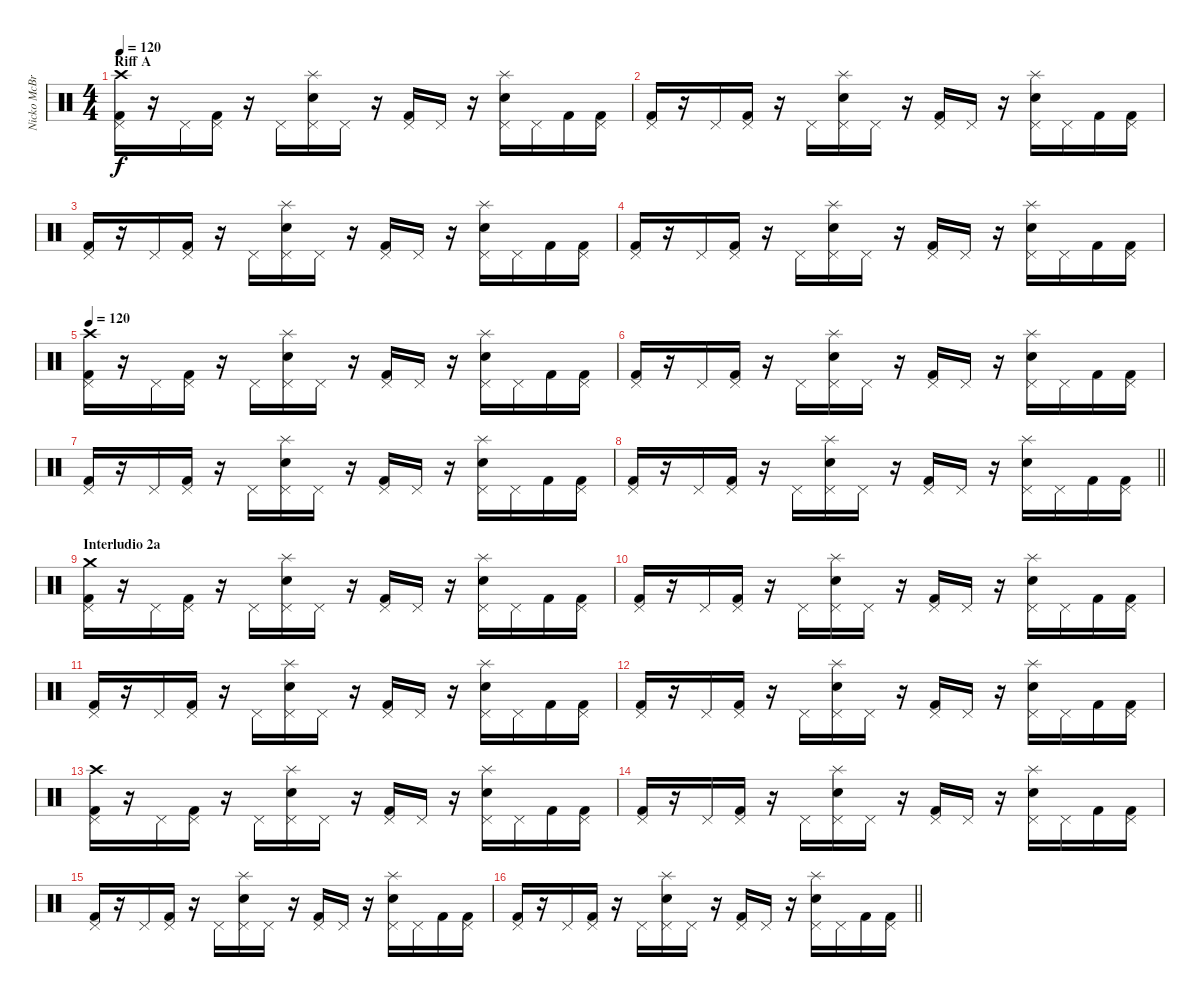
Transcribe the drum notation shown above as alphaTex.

\track ("Nicko McBrain" "Nicko McBr") {instrument percussion}
\staff {score}
\articulation defaults
\ts (4 4)
\section ("" "Riff A")
\tempo 120
\clef neutral
\ks c
("Kick (hit) 2" "Pedal Hi-Hat (hit)" "Crash high (hit)").16{dy f} r.16 "Pedal Hi-Hat (hit)".16 ("Kick (hit) 2" "Pedal Hi-Hat (hit)").16 r.16 "Pedal Hi-Hat (hit)".16 ("Snare (hit) 2" "Pedal Hi-Hat (hit)" "Splash (hit)").16 "Pedal Hi-Hat (hit)".16 r.16 ("Kick (hit) 2" "Pedal Hi-Hat (hit)").16 "Pedal Hi-Hat (hit)".16 r.16 ("Snare (hit) 2" "Pedal Hi-Hat (hit)" "Splash (hit)").16 "Pedal Hi-Hat (hit)".16 "Kick (hit) 2".16 ("Kick (hit) 2" "Pedal Hi-Hat (hit)").16 |
("Kick (hit) 2" "Pedal Hi-Hat (hit)").16 r.16 "Pedal Hi-Hat (hit)".16 ("Kick (hit) 2" "Pedal Hi-Hat (hit)").16 r.16 "Pedal Hi-Hat (hit)".16 ("Snare (hit) 2" "Pedal Hi-Hat (hit)" "Splash (hit)").16 "Pedal Hi-Hat (hit)".16 r.16 ("Kick (hit) 2" "Pedal Hi-Hat (hit)").16 "Pedal Hi-Hat (hit)".16 r.16 ("Snare (hit) 2" "Pedal Hi-Hat (hit)" "Splash (hit)").16 "Pedal Hi-Hat (hit)".16 "Kick (hit) 2".16 ("Kick (hit) 2" "Pedal Hi-Hat (hit)").16 |
("Kick (hit) 2" "Pedal Hi-Hat (hit)").16 r.16 "Pedal Hi-Hat (hit)".16 ("Kick (hit) 2" "Pedal Hi-Hat (hit)").16 r.16 "Pedal Hi-Hat (hit)".16 ("Snare (hit) 2" "Pedal Hi-Hat (hit)" "Splash (hit)").16 "Pedal Hi-Hat (hit)".16 r.16 ("Kick (hit) 2" "Pedal Hi-Hat (hit)").16 "Pedal Hi-Hat (hit)".16 r.16 ("Snare (hit) 2" "Pedal Hi-Hat (hit)" "Splash (hit)").16 "Pedal Hi-Hat (hit)".16 "Kick (hit) 2".16 ("Kick (hit) 2" "Pedal Hi-Hat (hit)").16 |
("Kick (hit) 2" "Pedal Hi-Hat (hit)").16 r.16 "Pedal Hi-Hat (hit)".16 ("Kick (hit) 2" "Pedal Hi-Hat (hit)").16 r.16 "Pedal Hi-Hat (hit)".16 ("Snare (hit) 2" "Pedal Hi-Hat (hit)" "Splash (hit)").16 "Pedal Hi-Hat (hit)".16 r.16 ("Kick (hit) 2" "Pedal Hi-Hat (hit)").16 "Pedal Hi-Hat (hit)".16 r.16 ("Snare (hit) 2" "Pedal Hi-Hat (hit)" "Splash (hit)").16 "Pedal Hi-Hat (hit)".16 "Kick (hit) 2".16 ("Kick (hit) 2" "Pedal Hi-Hat (hit)").16 |
\tempo 120
("Kick (hit) 2" "Pedal Hi-Hat (hit)" "Crash high (hit)").16 r.16 "Pedal Hi-Hat (hit)".16 ("Kick (hit) 2" "Pedal Hi-Hat (hit)").16 r.16 "Pedal Hi-Hat (hit)".16 ("Snare (hit) 2" "Pedal Hi-Hat (hit)" "Splash (hit)").16 "Pedal Hi-Hat (hit)".16 r.16 ("Kick (hit) 2" "Pedal Hi-Hat (hit)").16 "Pedal Hi-Hat (hit)".16 r.16 ("Snare (hit) 2" "Pedal Hi-Hat (hit)" "Splash (hit)").16 "Pedal Hi-Hat (hit)".16 "Kick (hit) 2".16 ("Kick (hit) 2" "Pedal Hi-Hat (hit)").16 |
("Kick (hit) 2" "Pedal Hi-Hat (hit)").16 r.16 "Pedal Hi-Hat (hit)".16 ("Kick (hit) 2" "Pedal Hi-Hat (hit)").16 r.16 "Pedal Hi-Hat (hit)".16 ("Snare (hit) 2" "Pedal Hi-Hat (hit)" "Splash (hit)").16 "Pedal Hi-Hat (hit)".16 r.16 ("Kick (hit) 2" "Pedal Hi-Hat (hit)").16 "Pedal Hi-Hat (hit)".16 r.16 ("Snare (hit) 2" "Pedal Hi-Hat (hit)" "Splash (hit)").16 "Pedal Hi-Hat (hit)".16 "Kick (hit) 2".16 ("Kick (hit) 2" "Pedal Hi-Hat (hit)").16 |
("Kick (hit) 2" "Pedal Hi-Hat (hit)").16 r.16 "Pedal Hi-Hat (hit)".16 ("Kick (hit) 2" "Pedal Hi-Hat (hit)").16 r.16 "Pedal Hi-Hat (hit)".16 ("Snare (hit) 2" "Pedal Hi-Hat (hit)" "Splash (hit)").16 "Pedal Hi-Hat (hit)".16 r.16 ("Kick (hit) 2" "Pedal Hi-Hat (hit)").16 "Pedal Hi-Hat (hit)".16 r.16 ("Snare (hit) 2" "Pedal Hi-Hat (hit)" "Splash (hit)").16 "Pedal Hi-Hat (hit)".16 "Kick (hit) 2".16 ("Kick (hit) 2" "Pedal Hi-Hat (hit)").16 |
\barLineRight lightlight
("Kick (hit) 2" "Pedal Hi-Hat (hit)").16 r.16 "Pedal Hi-Hat (hit)".16 ("Kick (hit) 2" "Pedal Hi-Hat (hit)").16 r.16 "Pedal Hi-Hat (hit)".16 ("Snare (hit) 2" "Pedal Hi-Hat (hit)" "Splash (hit)").16 "Pedal Hi-Hat (hit)".16 r.16 ("Kick (hit) 2" "Pedal Hi-Hat (hit)").16 "Pedal Hi-Hat (hit)".16 r.16 ("Snare (hit) 2" "Pedal Hi-Hat (hit)" "Splash (hit)").16 "Pedal Hi-Hat (hit)".16 "Kick (hit) 2".16 ("Kick (hit) 2" "Pedal Hi-Hat (hit)").16 |
\section ("" "Interludio 2a")
("Kick (hit) 2" "Pedal Hi-Hat (hit)" "Crash medium (hit)").16 r.16 "Pedal Hi-Hat (hit)".16 ("Kick (hit) 2" "Pedal Hi-Hat (hit)").16 r.16 "Pedal Hi-Hat (hit)".16 ("Snare (hit) 2" "Pedal Hi-Hat (hit)" "Splash (hit)").16 "Pedal Hi-Hat (hit)".16 r.16 ("Kick (hit) 2" "Pedal Hi-Hat (hit)").16 "Pedal Hi-Hat (hit)".16 r.16 ("Snare (hit) 2" "Pedal Hi-Hat (hit)" "Splash (hit)").16 "Pedal Hi-Hat (hit)".16 "Kick (hit) 2".16 ("Kick (hit) 2" "Pedal Hi-Hat (hit)").16 |
("Kick (hit) 2" "Pedal Hi-Hat (hit)").16 r.16 "Pedal Hi-Hat (hit)".16 ("Kick (hit) 2" "Pedal Hi-Hat (hit)").16 r.16 "Pedal Hi-Hat (hit)".16 ("Snare (hit) 2" "Pedal Hi-Hat (hit)" "Splash (hit)").16 "Pedal Hi-Hat (hit)".16 r.16 ("Kick (hit) 2" "Pedal Hi-Hat (hit)").16 "Pedal Hi-Hat (hit)".16 r.16 ("Snare (hit) 2" "Pedal Hi-Hat (hit)" "Splash (hit)").16 "Pedal Hi-Hat (hit)".16 "Kick (hit) 2".16 ("Kick (hit) 2" "Pedal Hi-Hat (hit)").16 |
("Kick (hit) 2" "Pedal Hi-Hat (hit)").16 r.16 "Pedal Hi-Hat (hit)".16 ("Kick (hit) 2" "Pedal Hi-Hat (hit)").16 r.16 "Pedal Hi-Hat (hit)".16 ("Snare (hit) 2" "Pedal Hi-Hat (hit)" "Splash (hit)").16 "Pedal Hi-Hat (hit)".16 r.16 ("Kick (hit) 2" "Pedal Hi-Hat (hit)").16 "Pedal Hi-Hat (hit)".16 r.16 ("Snare (hit) 2" "Pedal Hi-Hat (hit)" "Splash (hit)").16 "Pedal Hi-Hat (hit)".16 "Kick (hit) 2".16 ("Kick (hit) 2" "Pedal Hi-Hat (hit)").16 |
("Kick (hit) 2" "Pedal Hi-Hat (hit)").16 r.16 "Pedal Hi-Hat (hit)".16 ("Kick (hit) 2" "Pedal Hi-Hat (hit)").16 r.16 "Pedal Hi-Hat (hit)".16 ("Snare (hit) 2" "Pedal Hi-Hat (hit)" "Splash (hit)").16 "Pedal Hi-Hat (hit)".16 r.16 ("Kick (hit) 2" "Pedal Hi-Hat (hit)").16 "Pedal Hi-Hat (hit)".16 r.16 ("Snare (hit) 2" "Pedal Hi-Hat (hit)" "Splash (hit)").16 "Pedal Hi-Hat (hit)".16 "Kick (hit) 2".16 ("Kick (hit) 2" "Pedal Hi-Hat (hit)").16 |
("Kick (hit) 2" "Pedal Hi-Hat (hit)" "Crash high (hit)").16 r.16 "Pedal Hi-Hat (hit)".16 ("Kick (hit) 2" "Pedal Hi-Hat (hit)").16 r.16 "Pedal Hi-Hat (hit)".16 ("Snare (hit) 2" "Pedal Hi-Hat (hit)" "Splash (hit)").16 "Pedal Hi-Hat (hit)".16 r.16 ("Kick (hit) 2" "Pedal Hi-Hat (hit)").16 "Pedal Hi-Hat (hit)".16 r.16 ("Snare (hit) 2" "Pedal Hi-Hat (hit)" "Splash (hit)").16 "Pedal Hi-Hat (hit)".16 "Kick (hit) 2".16 ("Kick (hit) 2" "Pedal Hi-Hat (hit)").16 |
("Kick (hit) 2" "Pedal Hi-Hat (hit)").16 r.16 "Pedal Hi-Hat (hit)".16 ("Kick (hit) 2" "Pedal Hi-Hat (hit)").16 r.16 "Pedal Hi-Hat (hit)".16 ("Snare (hit) 2" "Pedal Hi-Hat (hit)" "Splash (hit)").16 "Pedal Hi-Hat (hit)".16 r.16 ("Kick (hit) 2" "Pedal Hi-Hat (hit)").16 "Pedal Hi-Hat (hit)".16 r.16 ("Snare (hit) 2" "Pedal Hi-Hat (hit)" "Splash (hit)").16 "Pedal Hi-Hat (hit)".16 "Kick (hit) 2".16 ("Kick (hit) 2" "Pedal Hi-Hat (hit)").16 |
("Kick (hit) 2" "Pedal Hi-Hat (hit)").16 r.16 "Pedal Hi-Hat (hit)".16 ("Kick (hit) 2" "Pedal Hi-Hat (hit)").16 r.16 "Pedal Hi-Hat (hit)".16 ("Snare (hit) 2" "Pedal Hi-Hat (hit)" "Splash (hit)").16 "Pedal Hi-Hat (hit)".16 r.16 ("Kick (hit) 2" "Pedal Hi-Hat (hit)").16 "Pedal Hi-Hat (hit)".16 r.16 ("Snare (hit) 2" "Pedal Hi-Hat (hit)" "Splash (hit)").16 "Pedal Hi-Hat (hit)".16 "Kick (hit) 2".16 ("Kick (hit) 2" "Pedal Hi-Hat (hit)").16 |
\barLineRight lightlight
("Kick (hit) 2" "Pedal Hi-Hat (hit)").16 r.16 "Pedal Hi-Hat (hit)".16 ("Kick (hit) 2" "Pedal Hi-Hat (hit)").16 r.16 "Pedal Hi-Hat (hit)".16 ("Snare (hit) 2" "Pedal Hi-Hat (hit)" "Splash (hit)").16 "Pedal Hi-Hat (hit)".16 r.16 ("Kick (hit) 2" "Pedal Hi-Hat (hit)").16 "Pedal Hi-Hat (hit)".16 r.16 ("Snare (hit) 2" "Pedal Hi-Hat (hit)" "Splash (hit)").16 "Pedal Hi-Hat (hit)".16 "Kick (hit) 2".16 ("Kick (hit) 2" "Pedal Hi-Hat (hit)").16
